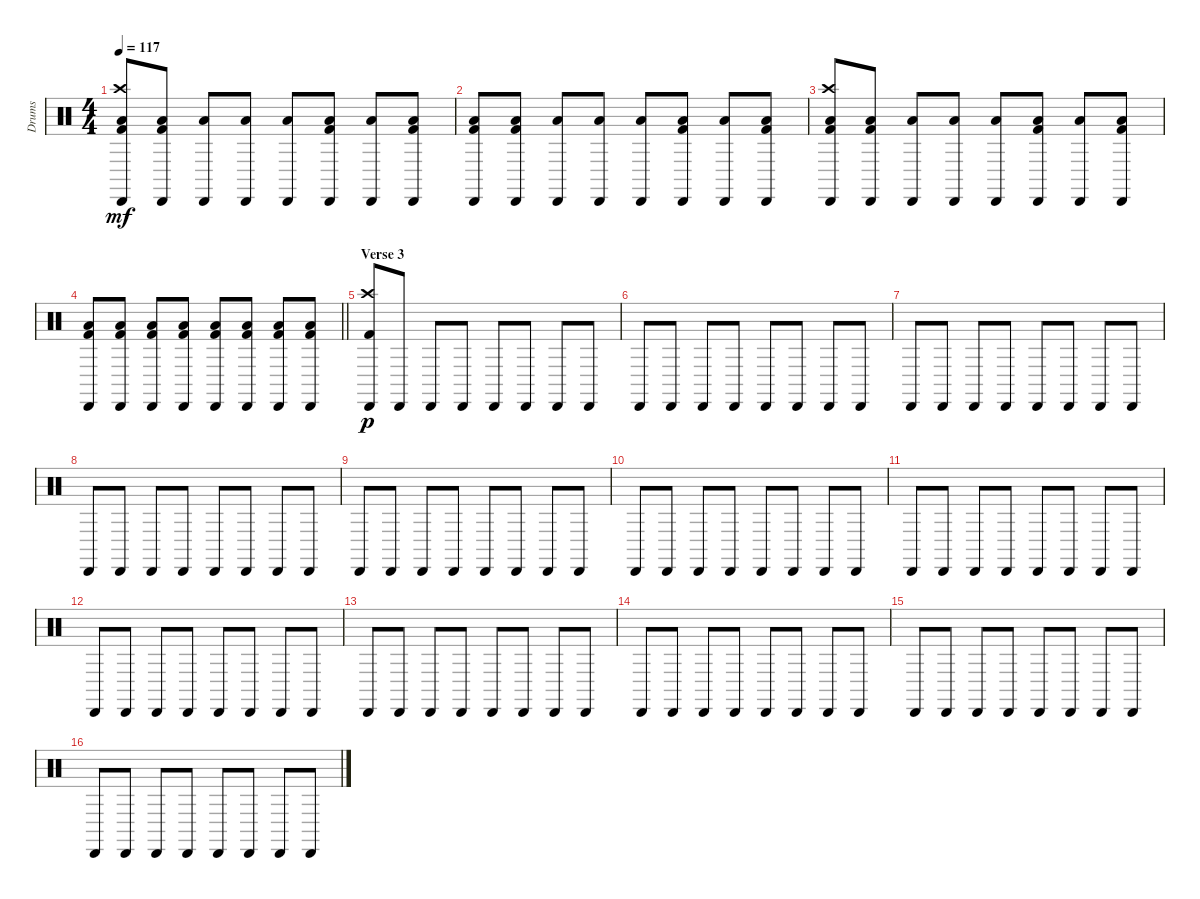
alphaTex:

\track ("Drums" "Drums") {instrument percussion}
\staff {score}
\articulation defaults
\ts (4 4)
\tempo 117
\clef neutral
\ks c
("Crash high (hit)" "Cabasa (hit)" "Low Floor Tom (hit)" "Kick (hit) 2").8{dy mf} ("Cabasa (hit)" "Low Floor Tom (hit)" "Kick (hit) 2").8 ("Cabasa (hit)" "Low Floor Tom (hit)").8 ("Cabasa (hit)" "Low Floor Tom (hit)").8 ("Cabasa (hit)" "Low Floor Tom (hit)").8 ("Cabasa (hit)" "Low Floor Tom (hit)" "Kick (hit) 2").8 ("Cabasa (hit)" "Low Floor Tom (hit)").8 ("Cabasa (hit)" "Low Floor Tom (hit)" "Kick (hit) 2").8 |
("Cabasa (hit)" "Low Floor Tom (hit)" "Kick (hit) 2").8 ("Cabasa (hit)" "Low Floor Tom (hit)" "Kick (hit) 2").8 ("Cabasa (hit)" "Low Floor Tom (hit)").8 ("Cabasa (hit)" "Low Floor Tom (hit)").8 ("Cabasa (hit)" "Low Floor Tom (hit)").8 ("Cabasa (hit)" "Low Floor Tom (hit)" "Kick (hit) 2").8 ("Cabasa (hit)" "Low Floor Tom (hit)").8 ("Cabasa (hit)" "Low Floor Tom (hit)" "Kick (hit) 2").8 |
("Crash high (hit)" "Cabasa (hit)" "Low Floor Tom (hit)" "Kick (hit) 2").8 ("Cabasa (hit)" "Low Floor Tom (hit)" "Kick (hit) 2").8 ("Cabasa (hit)" "Low Floor Tom (hit)").8 ("Cabasa (hit)" "Low Floor Tom (hit)").8 ("Cabasa (hit)" "Low Floor Tom (hit)").8 ("Cabasa (hit)" "Low Floor Tom (hit)" "Kick (hit) 2").8 ("Cabasa (hit)" "Low Floor Tom (hit)").8 ("Cabasa (hit)" "Low Floor Tom (hit)" "Kick (hit) 2").8 |
\barLineRight lightlight
("Cabasa (hit)" "Low Floor Tom (hit)" "Kick (hit) 2").8 ("Cabasa (hit)" "Low Floor Tom (hit)" "Kick (hit) 2").8 ("Cabasa (hit)" "Low Floor Tom (hit)" "Kick (hit) 2").8 ("Cabasa (hit)" "Low Floor Tom (hit)" "Kick (hit) 2").8 ("Cabasa (hit)" "Low Floor Tom (hit)" "Kick (hit) 2").8 ("Cabasa (hit)" "Low Floor Tom (hit)" "Kick (hit) 2").8 ("Cabasa (hit)" "Low Floor Tom (hit)" "Kick (hit) 2").8 ("Cabasa (hit)" "Low Floor Tom (hit)" "Kick (hit) 2").8 |
\section ("" "Verse 3")
("Crash high (hit)" "Kick (hit) 2" "Cabasa (hit)").8{dy p} "Cabasa (hit)".8 "Cabasa (hit)".8 "Cabasa (hit)".8 "Cabasa (hit)".8 "Cabasa (hit)".8 "Cabasa (hit)".8 "Cabasa (hit)".8 |
"Cabasa (hit)".8 "Cabasa (hit)".8 "Cabasa (hit)".8 "Cabasa (hit)".8 "Cabasa (hit)".8 "Cabasa (hit)".8 "Cabasa (hit)".8 "Cabasa (hit)".8 |
"Cabasa (hit)".8 "Cabasa (hit)".8 "Cabasa (hit)".8 "Cabasa (hit)".8 "Cabasa (hit)".8 "Cabasa (hit)".8 "Cabasa (hit)".8 "Cabasa (hit)".8 |
"Cabasa (hit)".8 "Cabasa (hit)".8 "Cabasa (hit)".8 "Cabasa (hit)".8 "Cabasa (hit)".8 "Cabasa (hit)".8 "Cabasa (hit)".8 "Cabasa (hit)".8 |
"Cabasa (hit)".8 "Cabasa (hit)".8 "Cabasa (hit)".8 "Cabasa (hit)".8 "Cabasa (hit)".8 "Cabasa (hit)".8 "Cabasa (hit)".8 "Cabasa (hit)".8 |
"Cabasa (hit)".8 "Cabasa (hit)".8 "Cabasa (hit)".8 "Cabasa (hit)".8 "Cabasa (hit)".8 "Cabasa (hit)".8 "Cabasa (hit)".8 "Cabasa (hit)".8 |
"Cabasa (hit)".8 "Cabasa (hit)".8 "Cabasa (hit)".8 "Cabasa (hit)".8 "Cabasa (hit)".8 "Cabasa (hit)".8 "Cabasa (hit)".8 "Cabasa (hit)".8 |
"Cabasa (hit)".8 "Cabasa (hit)".8 "Cabasa (hit)".8 "Cabasa (hit)".8 "Cabasa (hit)".8 "Cabasa (hit)".8 "Cabasa (hit)".8 "Cabasa (hit)".8 |
"Cabasa (hit)".8 "Cabasa (hit)".8 "Cabasa (hit)".8 "Cabasa (hit)".8 "Cabasa (hit)".8 "Cabasa (hit)".8 "Cabasa (hit)".8 "Cabasa (hit)".8 |
"Cabasa (hit)".8 "Cabasa (hit)".8 "Cabasa (hit)".8 "Cabasa (hit)".8 "Cabasa (hit)".8 "Cabasa (hit)".8 "Cabasa (hit)".8 "Cabasa (hit)".8 |
"Cabasa (hit)".8 "Cabasa (hit)".8 "Cabasa (hit)".8 "Cabasa (hit)".8 "Cabasa (hit)".8 "Cabasa (hit)".8 "Cabasa (hit)".8 "Cabasa (hit)".8 |
"Cabasa (hit)".8 "Cabasa (hit)".8 "Cabasa (hit)".8 "Cabasa (hit)".8 "Cabasa (hit)".8 "Cabasa (hit)".8 "Cabasa (hit)".8 "Cabasa (hit)".8
